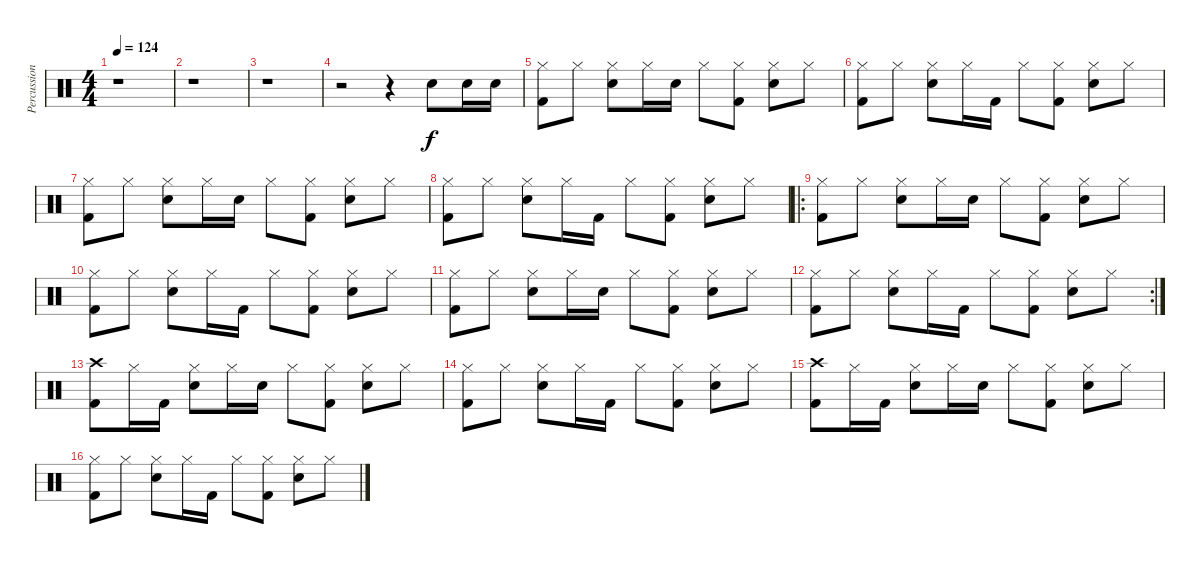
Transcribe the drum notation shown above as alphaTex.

\track ("Percussion" "Percussion") {instrument percussion}
\staff {score}
\articulation defaults
\ts (4 4)
\tempo 124
\clef neutral
\ks c
r.1{dy f} |
r.1 |
r.1 |
r.2 r.4 "Electric Snare (hit)".8 "Electric Snare (hit)".16 "Electric Snare (hit)".16 |
("Hi-Hat (closed)" "Kick (hit) 2").8 "Hi-Hat (closed)".8 ("Hi-Hat (closed)" "Electric Snare (hit)").8 "Hi-Hat (closed)".16 "Electric Snare (hit)".16 "Hi-Hat (closed)".8 ("Hi-Hat (closed)" "Kick (hit) 2").8 ("Hi-Hat (closed)" "Electric Snare (hit)").8 "Hi-Hat (closed)".8 |
("Hi-Hat (closed)" "Kick (hit) 2").8 "Hi-Hat (closed)".8 ("Hi-Hat (closed)" "Electric Snare (hit)").8 "Hi-Hat (closed)".16 "Kick (hit) 2".16 "Hi-Hat (closed)".8 ("Hi-Hat (closed)" "Kick (hit) 2").8 ("Hi-Hat (closed)" "Electric Snare (hit)").8 "Hi-Hat (closed)".8 |
("Hi-Hat (closed)" "Kick (hit) 2").8 "Hi-Hat (closed)".8 ("Hi-Hat (closed)" "Electric Snare (hit)").8 "Hi-Hat (closed)".16 "Electric Snare (hit)".16 "Hi-Hat (closed)".8 ("Hi-Hat (closed)" "Kick (hit) 2").8 ("Hi-Hat (closed)" "Electric Snare (hit)").8 "Hi-Hat (closed)".8 |
("Hi-Hat (closed)" "Kick (hit) 2").8 "Hi-Hat (closed)".8 ("Hi-Hat (closed)" "Electric Snare (hit)").8 "Hi-Hat (closed)".16 "Kick (hit) 2".16 "Hi-Hat (closed)".8 ("Hi-Hat (closed)" "Kick (hit) 2").8 ("Hi-Hat (closed)" "Electric Snare (hit)").8 "Hi-Hat (closed)".8 |
\ro
("Hi-Hat (closed)" "Kick (hit) 2").8 "Hi-Hat (closed)".8 ("Hi-Hat (closed)" "Electric Snare (hit)").8 "Hi-Hat (closed)".16 "Electric Snare (hit)".16 "Hi-Hat (closed)".8 ("Hi-Hat (closed)" "Kick (hit) 2").8 ("Hi-Hat (closed)" "Electric Snare (hit)").8 "Hi-Hat (closed)".8 |
("Hi-Hat (closed)" "Kick (hit) 2").8 "Hi-Hat (closed)".8 ("Hi-Hat (closed)" "Electric Snare (hit)").8 "Hi-Hat (closed)".16 "Kick (hit) 2".16 "Hi-Hat (closed)".8 ("Hi-Hat (closed)" "Kick (hit) 2").8 ("Hi-Hat (closed)" "Electric Snare (hit)").8 "Hi-Hat (closed)".8 |
("Hi-Hat (closed)" "Kick (hit) 2").8 "Hi-Hat (closed)".8 ("Hi-Hat (closed)" "Electric Snare (hit)").8 "Hi-Hat (closed)".16 "Electric Snare (hit)".16 "Hi-Hat (closed)".8 ("Hi-Hat (closed)" "Kick (hit) 2").8 ("Hi-Hat (closed)" "Electric Snare (hit)").8 "Hi-Hat (closed)".8 |
\rc 2
("Hi-Hat (closed)" "Kick (hit) 2").8 "Hi-Hat (closed)".8 ("Hi-Hat (closed)" "Electric Snare (hit)").8 "Hi-Hat (closed)".16 "Kick (hit) 2".16 "Hi-Hat (closed)".8 ("Hi-Hat (closed)" "Kick (hit) 2").8 ("Hi-Hat (closed)" "Electric Snare (hit)").8 "Hi-Hat (closed)".8 |
("Crash high (hit)" "Kick (hit) 2").8 "Hi-Hat (closed)".16 "Kick (hit) 2".16 ("Hi-Hat (closed)" "Electric Snare (hit)").8 "Hi-Hat (closed)".16 "Electric Snare (hit)".16 "Hi-Hat (closed)".8 ("Hi-Hat (closed)" "Kick (hit) 2").8 ("Hi-Hat (closed)" "Electric Snare (hit)").8 "Hi-Hat (closed)".8 |
("Hi-Hat (closed)" "Kick (hit) 2").8 "Hi-Hat (closed)".8 ("Hi-Hat (closed)" "Electric Snare (hit)").8 "Hi-Hat (closed)".16 "Kick (hit) 2".16 "Hi-Hat (closed)".8 ("Hi-Hat (closed)" "Kick (hit) 2").8 ("Hi-Hat (closed)" "Electric Snare (hit)").8 "Hi-Hat (closed)".8 |
("Crash high (hit)" "Kick (hit) 2").8 "Hi-Hat (closed)".16 "Kick (hit) 2".16 ("Hi-Hat (closed)" "Electric Snare (hit)").8 "Hi-Hat (closed)".16 "Electric Snare (hit)".16 "Hi-Hat (closed)".8 ("Hi-Hat (closed)" "Kick (hit) 2").8 ("Hi-Hat (closed)" "Electric Snare (hit)").8 "Hi-Hat (closed)".8 |
("Hi-Hat (closed)" "Kick (hit) 2").8 "Hi-Hat (closed)".8 ("Hi-Hat (closed)" "Electric Snare (hit)").8 "Hi-Hat (closed)".16 "Kick (hit) 2".16 "Hi-Hat (closed)".8 ("Hi-Hat (closed)" "Kick (hit) 2").8 ("Hi-Hat (closed)" "Electric Snare (hit)").8 "Hi-Hat (closed)".8
